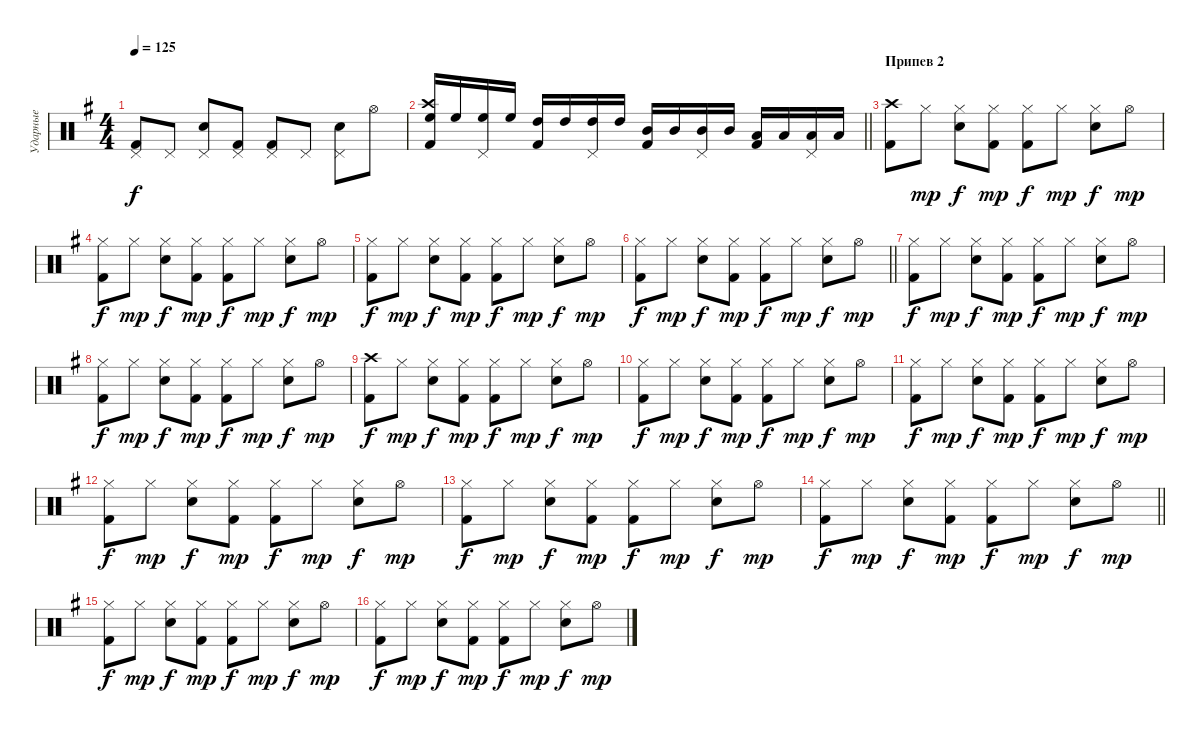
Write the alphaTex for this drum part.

\track ("Ударные" "Ударные") {instrument percussion}
\staff {score}
\articulation defaults
\ts (4 4)
\tempo 125
\clef neutral
\ks eminor
("Pedal Hi-Hat (hit)" "Kick (hit) 2").8{dy f} "Pedal Hi-Hat (hit)".8 ("Pedal Hi-Hat (hit)" "Snare (hit) 2").8 ("Pedal Hi-Hat (hit)" "Kick (hit) 2").8 ("Pedal Hi-Hat (hit)" "Kick (hit) 2").8 "Pedal Hi-Hat (hit)".8 ("Pedal Hi-Hat (hit)" "Snare (hit) 2").8 "Hi-Hat (open)".8 |
\barLineRight lightlight
("Crash high (hit)" "High Floor Tom (hit)" "Kick (hit) 2").16 "High Floor Tom (hit)".16 ("Pedal Hi-Hat (hit)" "High Floor Tom (hit)").16 "High Floor Tom (hit)".16 ("High Tom (hit)" "Kick (hit) 2").16 "High Tom (hit)".16 ("Pedal Hi-Hat (hit)" "High Tom (hit)").16 "High Tom (hit)".16 ("Mid Tom (hit)" "Kick (hit) 2").16 "Mid Tom (hit)".16 ("Pedal Hi-Hat (hit)" "Mid Tom (hit)").16 "Mid Tom (hit)".16 ("Low Tom (hit)" "Kick (hit) 2").16 "Low Tom (hit)".16 ("Pedal Hi-Hat (hit)" "Low Tom (hit)").16 "Low Tom (hit)".16 |
\section ("" "Припев 2")
("Crash high (hit)" "Kick (hit) 2").8 "Hi-Hat (closed)".8{dy mp} ("Hi-Hat (closed)" "Snare (hit) 2").8{dy f} ("Hi-Hat (closed)" "Kick (hit) 2").8{dy mp} ("Hi-Hat (closed)" "Kick (hit) 2").8{dy f} "Hi-Hat (closed)".8{dy mp} ("Hi-Hat (closed)" "Snare (hit) 2").8{dy f} "Hi-Hat (open)".8{dy mp} |
("Hi-Hat (closed)" "Kick (hit) 2").8{dy f} "Hi-Hat (closed)".8{dy mp} ("Hi-Hat (closed)" "Snare (hit) 2").8{dy f} ("Hi-Hat (closed)" "Kick (hit) 2").8{dy mp} ("Hi-Hat (closed)" "Kick (hit) 2").8{dy f} "Hi-Hat (closed)".8{dy mp} ("Hi-Hat (closed)" "Snare (hit) 2").8{dy f} "Hi-Hat (open)".8{dy mp} |
("Hi-Hat (closed)" "Kick (hit) 2").8{dy f} "Hi-Hat (closed)".8{dy mp} ("Hi-Hat (closed)" "Snare (hit) 2").8{dy f} ("Hi-Hat (closed)" "Kick (hit) 2").8{dy mp} ("Hi-Hat (closed)" "Kick (hit) 2").8{dy f} "Hi-Hat (closed)".8{dy mp} ("Hi-Hat (closed)" "Snare (hit) 2").8{dy f} "Hi-Hat (open)".8{dy mp} |
\barLineRight lightlight
("Hi-Hat (closed)" "Kick (hit) 2").8{dy f} "Hi-Hat (closed)".8{dy mp} ("Hi-Hat (closed)" "Snare (hit) 2").8{dy f} ("Hi-Hat (closed)" "Kick (hit) 2").8{dy mp} ("Hi-Hat (closed)" "Kick (hit) 2").8{dy f} "Hi-Hat (closed)".8{dy mp} ("Hi-Hat (closed)" "Snare (hit) 2").8{dy f} "Hi-Hat (open)".8{dy mp} |
("Hi-Hat (closed)" "Kick (hit) 2").8{dy f} "Hi-Hat (closed)".8{dy mp} ("Hi-Hat (closed)" "Snare (hit) 2").8{dy f} ("Hi-Hat (closed)" "Kick (hit) 2").8{dy mp} ("Hi-Hat (closed)" "Kick (hit) 2").8{dy f} "Hi-Hat (closed)".8{dy mp} ("Hi-Hat (closed)" "Snare (hit) 2").8{dy f} "Hi-Hat (open)".8{dy mp} |
("Hi-Hat (closed)" "Kick (hit) 2").8{dy f} "Hi-Hat (closed)".8{dy mp} ("Hi-Hat (closed)" "Snare (hit) 2").8{dy f} ("Hi-Hat (closed)" "Kick (hit) 2").8{dy mp} ("Hi-Hat (closed)" "Kick (hit) 2").8{dy f} "Hi-Hat (closed)".8{dy mp} ("Hi-Hat (closed)" "Snare (hit) 2").8{dy f} "Hi-Hat (open)".8{dy mp} |
("Crash high (hit)" "Kick (hit) 2").8{dy f} "Hi-Hat (closed)".8{dy mp} ("Hi-Hat (closed)" "Snare (hit) 2").8{dy f} ("Hi-Hat (closed)" "Kick (hit) 2").8{dy mp} ("Hi-Hat (closed)" "Kick (hit) 2").8{dy f} "Hi-Hat (closed)".8{dy mp} ("Hi-Hat (closed)" "Snare (hit) 2").8{dy f} "Hi-Hat (open)".8{dy mp} |
("Hi-Hat (closed)" "Kick (hit) 2").8{dy f} "Hi-Hat (closed)".8{dy mp} ("Hi-Hat (closed)" "Snare (hit) 2").8{dy f} ("Hi-Hat (closed)" "Kick (hit) 2").8{dy mp} ("Hi-Hat (closed)" "Kick (hit) 2").8{dy f} "Hi-Hat (closed)".8{dy mp} ("Hi-Hat (closed)" "Snare (hit) 2").8{dy f} "Hi-Hat (open)".8{dy mp} |
("Hi-Hat (closed)" "Kick (hit) 2").8{dy f} "Hi-Hat (closed)".8{dy mp} ("Hi-Hat (closed)" "Snare (hit) 2").8{dy f} ("Hi-Hat (closed)" "Kick (hit) 2").8{dy mp} ("Hi-Hat (closed)" "Kick (hit) 2").8{dy f} "Hi-Hat (closed)".8{dy mp} ("Hi-Hat (closed)" "Snare (hit) 2").8{dy f} "Hi-Hat (open)".8{dy mp} |
("Hi-Hat (closed)" "Kick (hit) 2").8{dy f} "Hi-Hat (closed)".8{dy mp} ("Hi-Hat (closed)" "Snare (hit) 2").8{dy f} ("Hi-Hat (closed)" "Kick (hit) 2").8{dy mp} ("Hi-Hat (closed)" "Kick (hit) 2").8{dy f} "Hi-Hat (closed)".8{dy mp} ("Hi-Hat (closed)" "Snare (hit) 2").8{dy f} "Hi-Hat (open)".8{dy mp} |
("Hi-Hat (closed)" "Kick (hit) 2").8{dy f} "Hi-Hat (closed)".8{dy mp} ("Hi-Hat (closed)" "Snare (hit) 2").8{dy f} ("Hi-Hat (closed)" "Kick (hit) 2").8{dy mp} ("Hi-Hat (closed)" "Kick (hit) 2").8{dy f} "Hi-Hat (closed)".8{dy mp} ("Hi-Hat (closed)" "Snare (hit) 2").8{dy f} "Hi-Hat (open)".8{dy mp} |
\barLineRight lightlight
("Hi-Hat (closed)" "Kick (hit) 2").8{dy f} "Hi-Hat (closed)".8{dy mp} ("Hi-Hat (closed)" "Snare (hit) 2").8{dy f} ("Hi-Hat (closed)" "Kick (hit) 2").8{dy mp} ("Hi-Hat (closed)" "Kick (hit) 2").8{dy f} "Hi-Hat (closed)".8{dy mp} ("Hi-Hat (closed)" "Snare (hit) 2").8{dy f} "Hi-Hat (open)".8{dy mp} |
("Hi-Hat (closed)" "Kick (hit) 2").8{dy f} "Hi-Hat (closed)".8{dy mp} ("Hi-Hat (closed)" "Snare (hit) 2").8{dy f} ("Hi-Hat (closed)" "Kick (hit) 2").8{dy mp} ("Hi-Hat (closed)" "Kick (hit) 2").8{dy f} "Hi-Hat (closed)".8{dy mp} ("Hi-Hat (closed)" "Snare (hit) 2").8{dy f} "Hi-Hat (open)".8{dy mp} |
("Hi-Hat (closed)" "Kick (hit) 2").8{dy f} "Hi-Hat (closed)".8{dy mp} ("Hi-Hat (closed)" "Snare (hit) 2").8{dy f} ("Hi-Hat (closed)" "Kick (hit) 2").8{dy mp} ("Hi-Hat (closed)" "Kick (hit) 2").8{dy f} "Hi-Hat (closed)".8{dy mp} ("Hi-Hat (closed)" "Snare (hit) 2").8{dy f} "Hi-Hat (open)".8{dy mp}
